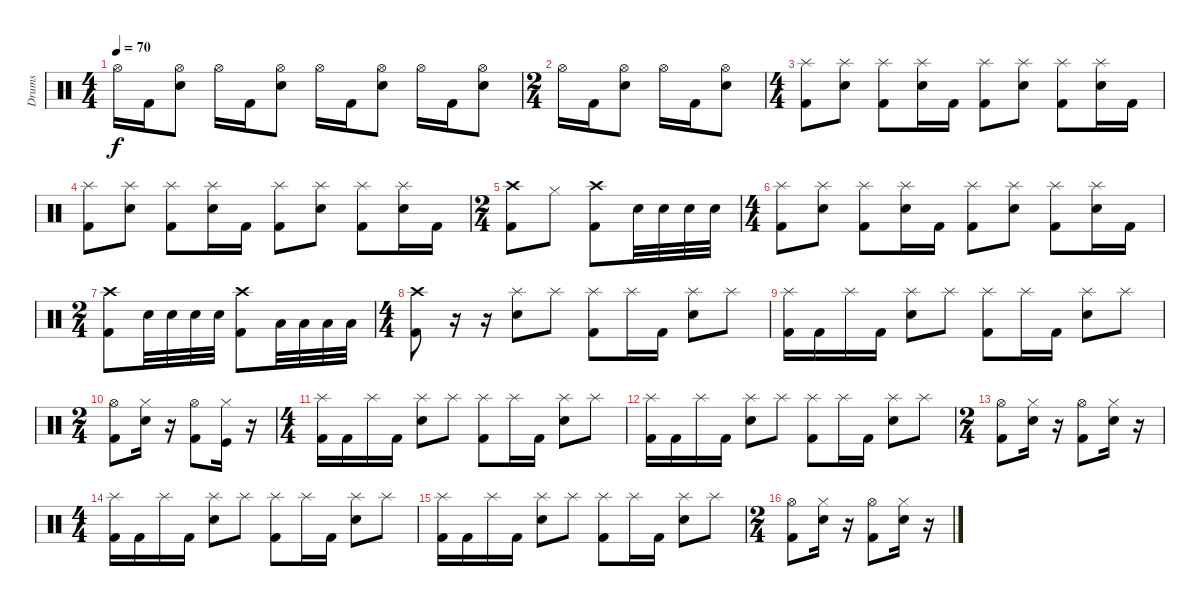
\track ("Drums" "Drums") {instrument percussion}
\staff {score}
\articulation defaults
\ts (4 4)
\tempo 70
\clef neutral
\ks c "Hi-Hat (open)".16{dy f} "Kick (hit) 2".16
("Hi-Hat (open)" "Snare (hit) 2").8 "Hi-Hat (open)".16 "Kick (hit) 2".16 ("Hi-Hat (open)" "Snare (hit) 2").8 "Hi-Hat (open)".16 "Kick (hit) 2".16 ("Hi-Hat (open)" "Snare (hit) 2").8 "Hi-Hat (open)".16 "Kick (hit) 2".16 ("Hi-Hat (open)" "Snare (hit) 2").8 |
\ts (2 4)
"Hi-Hat (open)".16 "Kick (hit) 2".16 ("Hi-Hat (open)" "Snare (hit) 2").8 "Hi-Hat (open)".16 "Kick (hit) 2".16 ("Hi-Hat (open)" "Snare (hit) 2").8 |
\ts (4 4)
("Splash (hit)" "Kick (hit) 2").8 ("Splash (hit)" "Snare (hit) 2").8 ("Splash (hit)" "Kick (hit) 2").8 ("Splash (hit)" "Snare (hit) 2").16 "Kick (hit) 2".16 ("Splash (hit)" "Kick (hit) 2").8 ("Splash (hit)" "Snare (hit) 2").8 ("Splash (hit)" "Kick (hit) 2").8 ("Splash (hit)" "Snare (hit) 2").16 "Kick (hit) 2".16 |
("Splash (hit)" "Kick (hit) 2").8 ("Splash (hit)" "Snare (hit) 2").8 ("Splash (hit)" "Kick (hit) 2").8 ("Splash (hit)" "Snare (hit) 2").16 "Kick (hit) 2".16 ("Splash (hit)" "Kick (hit) 2").8 ("Splash (hit)" "Snare (hit) 2").8 ("Splash (hit)" "Kick (hit) 2").8 ("Splash (hit)" "Snare (hit) 2").16 "Kick (hit) 2".16 |
\ts (2 4)
("Crash high (hit)" "Kick (hit) 2").8 "Hi-Hat (closed)".8 ("Crash high (hit)" "Kick (hit) 2").8 "Snare (hit) 2".32 "Snare (hit) 2".32 "Snare (hit) 2".32 "Snare (hit) 2".32 |
\ts (4 4)
("Splash (hit)" "Kick (hit) 2").8 ("Splash (hit)" "Snare (hit) 2").8 ("Splash (hit)" "Kick (hit) 2").8 ("Splash (hit)" "Snare (hit) 2").16 "Kick (hit) 2".16 ("Splash (hit)" "Kick (hit) 2").8 ("Splash (hit)" "Snare (hit) 2").8 ("Splash (hit)" "Kick (hit) 2").8 ("Splash (hit)" "Snare (hit) 2").16 "Kick (hit) 2".16 |
\ts (2 4)
("Crash high (hit)" "Kick (hit) 2").8 "Snare (hit) 2".32 "Snare (hit) 2".32 "Snare (hit) 2".32 "Snare (hit) 2".32 ("Crash high (hit)" "Kick (hit) 2").8 "Low Floor Tom (hit)".32 "Low Floor Tom (hit)".32 "Low Floor Tom (hit)".32 "Low Floor Tom (hit)".32 |
\ts (4 4)
("Crash high (hit)" "Kick (hit) 2").8 r.16 r.16 ("Splash (hit)" "Snare (hit) 2").8 "Splash (hit)".8 ("Splash (hit)" "Kick (hit) 2").8 "Splash (hit)".16 "Kick (hit) 2".16 ("Splash (hit)" "Snare (hit) 2").8 "Splash (hit)".8 |
("Splash (hit)" "Kick (hit) 2").16 "Kick (hit) 2".16 "Splash (hit)".16 "Kick (hit) 2".16 ("Splash (hit)" "Snare (hit) 2").8 "Splash (hit)".8 ("Splash (hit)" "Kick (hit) 2").8 "Splash (hit)".16 "Kick (hit) 2".16 ("Splash (hit)" "Snare (hit) 2").8 "Splash (hit)".8 |
\ts (2 4)
("Hi-Hat (open)" "Kick (hit) 2").8 ("Hi-Hat (closed)" "Snare (hit) 2").16 r.16 ("Hi-Hat (open)" "Kick (hit) 2").8 ("Hi-Hat (closed)" "Kick (hit)").16 r.16 |
\ts (4 4)
("Splash (hit)" "Kick (hit) 2").16 "Kick (hit) 2".16 "Splash (hit)".16 "Kick (hit) 2".16 ("Splash (hit)" "Snare (hit) 2").8 "Splash (hit)".8 ("Splash (hit)" "Kick (hit) 2").8 "Splash (hit)".16 "Kick (hit) 2".16 ("Splash (hit)" "Snare (hit) 2").8 "Splash (hit)".8 |
("Splash (hit)" "Kick (hit) 2").16 "Kick (hit) 2".16 "Splash (hit)".16 "Kick (hit) 2".16 ("Splash (hit)" "Snare (hit) 2").8 "Splash (hit)".8 ("Splash (hit)" "Kick (hit) 2").8 "Splash (hit)".16 "Kick (hit) 2".16 ("Splash (hit)" "Snare (hit) 2").8 "Splash (hit)".8 |
\ts (2 4)
("Hi-Hat (open)" "Kick (hit) 2").8 ("Hi-Hat (closed)" "Snare (hit) 2").16 r.16 ("Hi-Hat (open)" "Kick (hit) 2").8 ("Hi-Hat (closed)" "Snare (hit) 2").16 r.16 |
\ts (4 4)
("Splash (hit)" "Kick (hit) 2").16 "Kick (hit) 2".16 "Splash (hit)".16 "Kick (hit) 2".16 ("Splash (hit)" "Snare (hit) 2").8 "Splash (hit)".8 ("Splash (hit)" "Kick (hit) 2").8 "Splash (hit)".16 "Kick (hit) 2".16 ("Splash (hit)" "Snare (hit) 2").8 "Splash (hit)".8 |
("Splash (hit)" "Kick (hit) 2").16 "Kick (hit) 2".16 "Splash (hit)".16 "Kick (hit) 2".16 ("Splash (hit)" "Snare (hit) 2").8 "Splash (hit)".8 ("Splash (hit)" "Kick (hit) 2").8 "Splash (hit)".16 "Kick (hit) 2".16 ("Splash (hit)" "Snare (hit) 2").8 "Splash (hit)".8 |
\ts (2 4)
("Hi-Hat (open)" "Kick (hit) 2").8 ("Hi-Hat (closed)" "Snare (hit) 2").16 r.16 ("Hi-Hat (open)" "Kick (hit) 2").8 ("Hi-Hat (closed)" "Snare (hit) 2").16 r.16
